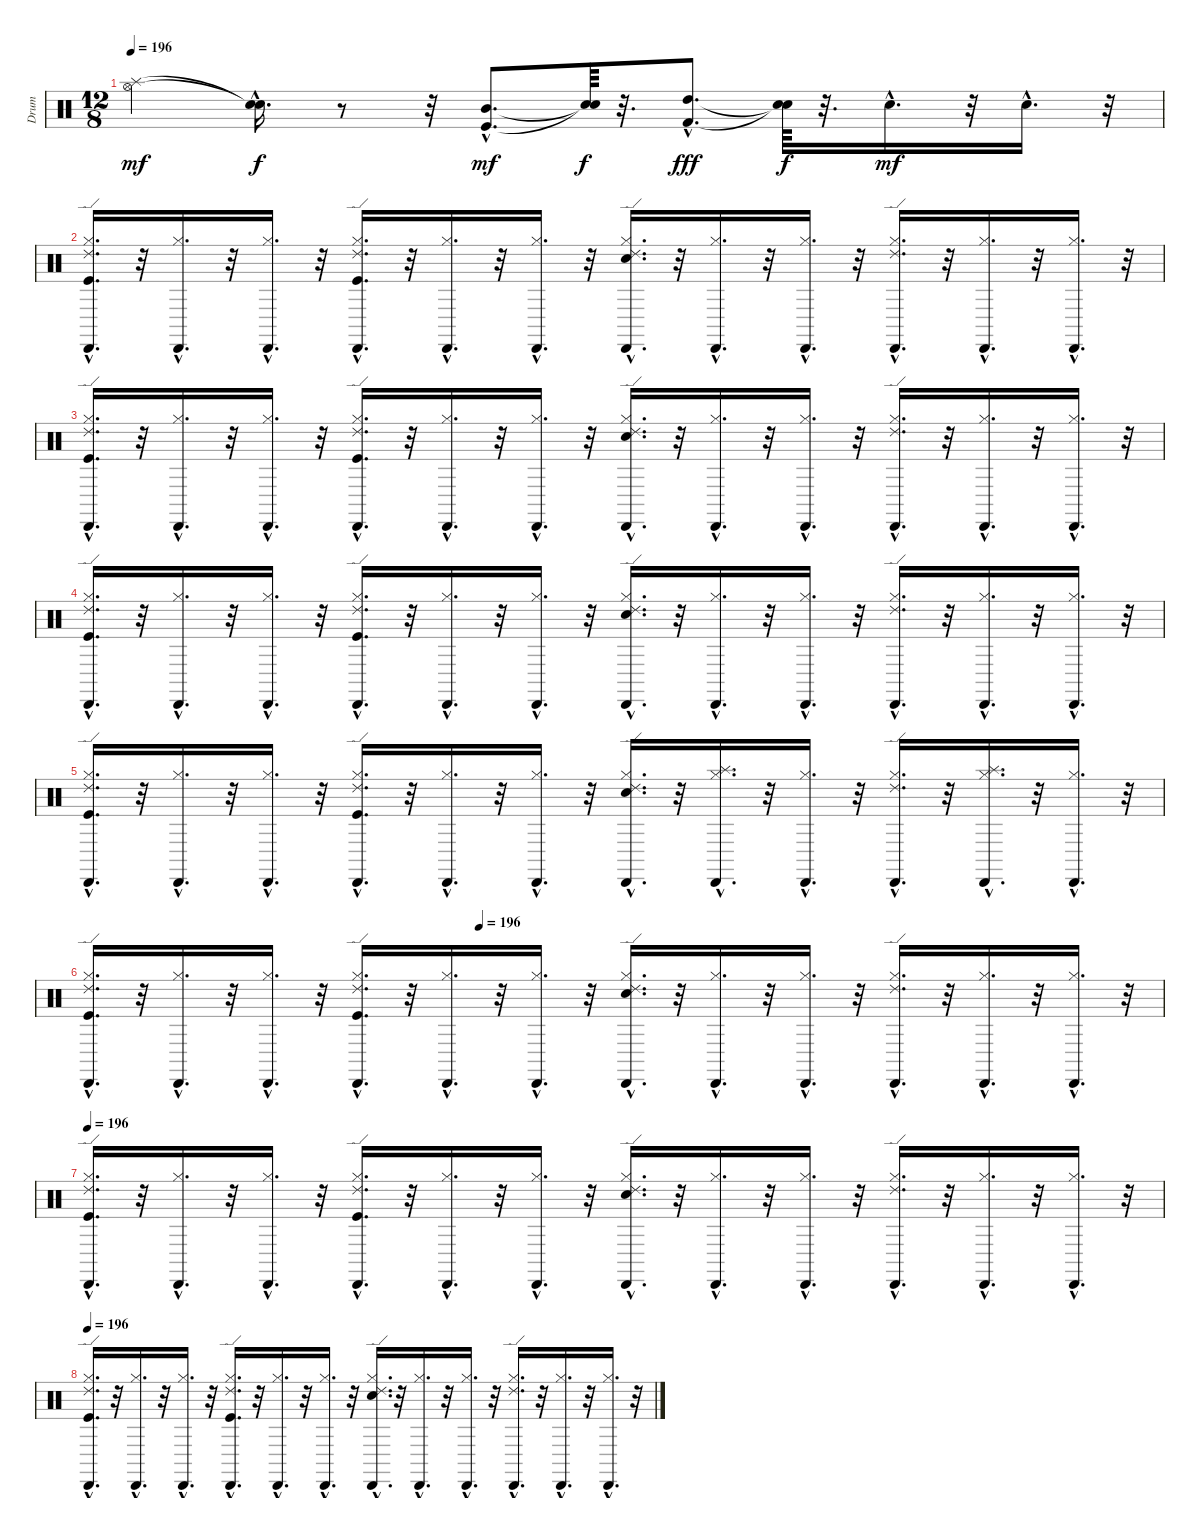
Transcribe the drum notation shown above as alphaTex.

\track ("Drum" "Drum") {instrument percussion}
\staff {score}
\articulation defaults
\ts (12 8)
\tempo 196
\clef neutral
\ks c
("Splash (hit)" "Hi-Hat (open)").2{dy mf} ("Snare (hit)"{hac t} "Snare (hit)"{hac t}).16{d dy f} r.8 r.32 ("Mid Tom (hit)"{hac} "Kick (hit)"{hac}).8{d dy mf} ("Snare (hit)"{t} "Snare (hit)"{t}).64{dy f} r.32{d} ("Kick (hit) 2"{hac} "High Tom (hit)"{hac}).8{d dy fff} ("Snare (hit)"{t} "Snare (hit)"{t}).64{dy f} r.32{d} "Snare (hit) 2"{hac}.16{d dy mf} r.32 "Snare (hit) 2"{hac}.16{d} r.32 |
("Ride (edge) 2"{hac} "Cabasa (hit)"{hac} "Kick (hit)"{hac} "Hi-Hat (closed)"{hac}).16{d} r.32 ("Cabasa (hit)"{hac} "Hi-Hat (closed)"{hac}).16{d} r.32 ("Cabasa (hit)"{hac} "Hi-Hat (closed)"{hac}).16{d} r.32 ("Ride (edge) 2"{hac} "Cabasa (hit)"{hac} "Kick (hit)"{hac} "Hi-Hat (closed)"{hac}).16{d} r.32 ("Cabasa (hit)"{hac} "Hi-Hat (closed)"{hac}).16{d} r.32 ("Cabasa (hit)"{hac} "Hi-Hat (closed)"{hac}).16{d} r.32 ("Ride (edge) 2"{hac} "Cabasa (hit)"{hac} "Snare (hit) 2"{hac} "Hi-Hat (closed)"{hac}).16{d} r.32 ("Cabasa (hit)"{hac} "Hi-Hat (closed)"{hac}).16{d} r.32 ("Cabasa (hit)"{hac} "Hi-Hat (closed)"{hac}).16{d} r.32 ("Ride (edge) 2"{hac} "Cabasa (hit)"{hac} "Hi-Hat (closed)"{hac}).16{d} r.32 ("Cabasa (hit)"{hac} "Hi-Hat (closed)"{hac}).16{d} r.32 ("Cabasa (hit)"{hac} "Hi-Hat (closed)"{hac}).16{d} r.32 |
("Kick (hit)"{hac} "Cabasa (hit)"{hac} "Ride (edge) 2"{hac} "Hi-Hat (closed)"{hac}).16{d} r.32 ("Hi-Hat (closed)"{hac} "Cabasa (hit)"{hac}).16{d} r.32 ("Hi-Hat (closed)"{hac} "Cabasa (hit)"{hac}).16{d} r.32 ("Kick (hit)"{hac} "Cabasa (hit)"{hac} "Hi-Hat (closed)"{hac} "Ride (edge) 2"{hac}).16{d} r.32 ("Hi-Hat (closed)"{hac} "Cabasa (hit)"{hac}).16{d} r.32 ("Cabasa (hit)"{hac} "Hi-Hat (closed)"{hac}).16{d} r.32 ("Cabasa (hit)"{hac} "Snare (hit) 2"{hac} "Ride (edge) 2"{hac} "Hi-Hat (closed)"{hac}).16{d} r.32 ("Hi-Hat (closed)"{hac} "Cabasa (hit)"{hac}).16{d} r.32 ("Hi-Hat (closed)"{hac} "Cabasa (hit)"{hac}).16{d} r.32 ("Hi-Hat (closed)"{hac} "Cabasa (hit)"{hac} "Ride (edge) 2"{hac}).16{d} r.32 ("Cabasa (hit)"{hac} "Hi-Hat (closed)"{hac}).16{d} r.32 ("Cabasa (hit)"{hac} "Hi-Hat (closed)"{hac}).16{d} r.32 |
("Cabasa (hit)"{hac} "Ride (edge) 2"{hac} "Hi-Hat (closed)"{hac} "Kick (hit)"{hac}).16{d} r.32 ("Hi-Hat (closed)"{hac} "Cabasa (hit)"{hac}).16{d} r.32 ("Hi-Hat (closed)"{hac} "Cabasa (hit)"{hac}).16{d} r.32 ("Cabasa (hit)"{hac} "Ride (edge) 2"{hac} "Hi-Hat (closed)"{hac} "Kick (hit)"{hac}).16{d} r.32 ("Cabasa (hit)"{hac} "Hi-Hat (closed)"{hac}).16{d} r.32 ("Hi-Hat (closed)"{hac} "Cabasa (hit)"{hac}).16{d} r.32 ("Ride (edge) 2"{hac} "Snare (hit) 2"{hac} "Hi-Hat (closed)"{hac} "Cabasa (hit)"{hac}).16{d} r.32 ("Cabasa (hit)"{hac} "Hi-Hat (closed)"{hac}).16{d} r.32 ("Hi-Hat (closed)"{hac} "Cabasa (hit)"{hac}).16{d} r.32 ("Cabasa (hit)"{hac} "Ride (edge) 2"{hac} "Hi-Hat (closed)"{hac}).16{d} r.32 ("Cabasa (hit)"{hac} "Hi-Hat (closed)"{hac}).16{d} r.32 ("Cabasa (hit)"{hac} "Hi-Hat (closed)"{hac}).16{d} r.32 |
("Ride (edge) 2"{hac} "Cabasa (hit)"{hac} "Kick (hit)"{hac} "Hi-Hat (closed)"{hac}).16{d} r.32 ("Cabasa (hit)"{hac} "Hi-Hat (closed)"{hac}).16{d} r.32 ("Cabasa (hit)"{hac} "Hi-Hat (closed)"{hac}).16{d} r.32 ("Ride (edge) 2"{hac} "Cabasa (hit)"{hac} "Kick (hit)"{hac} "Hi-Hat (closed)"{hac}).16{d} r.32 ("Cabasa (hit)"{hac} "Hi-Hat (closed)"{hac}).16{d} r.32 ("Cabasa (hit)"{hac} "Hi-Hat (closed)"{hac}).16{d} r.32 ("Ride (edge) 2"{hac} "Cabasa (hit)"{hac} "Snare (hit) 2"{hac} "Hi-Hat (closed)"{hac}).16{d} r.32 ("Splash (hit)"{hac} "Cabasa (hit)"{hac} "Hi-Hat (closed)"{hac}).16{d} r.32 ("Cabasa (hit)"{hac} "Hi-Hat (closed)"{hac}).16{d} r.32 ("Ride (edge) 2"{hac} "Cabasa (hit)"{hac} "Hi-Hat (closed)"{hac}).16{d} r.32 ("Splash (hit)"{hac} "Cabasa (hit)"{hac} "Hi-Hat (closed)"{hac}).16{d} r.32 ("Cabasa (hit)"{hac} "Hi-Hat (closed)"{hac}).16{d} r.32 |
\tempo (196 0.3645833333333333)
("Hi-Hat (closed)"{hac} "Kick (hit)"{hac} "Cabasa (hit)"{hac} "Ride (edge) 2"{hac}).16{d} r.32 ("Hi-Hat (closed)"{hac} "Cabasa (hit)"{hac}).16{d} r.32 ("Hi-Hat (closed)"{hac} "Cabasa (hit)"{hac}).16{d} r.32 ("Hi-Hat (closed)"{hac} "Kick (hit)"{hac} "Cabasa (hit)"{hac} "Ride (edge) 2"{hac}).16{d} r.32 ("Hi-Hat (closed)"{hac} "Cabasa (hit)"{hac}).16{d} r.32 ("Hi-Hat (closed)"{hac} "Cabasa (hit)"{hac}).16{d} r.32 ("Hi-Hat (closed)"{hac} "Snare (hit) 2"{hac} "Cabasa (hit)"{hac} "Ride (edge) 2"{hac}).16{d} r.32 ("Hi-Hat (closed)"{hac} "Cabasa (hit)"{hac}).16{d} r.32 ("Hi-Hat (closed)"{hac} "Cabasa (hit)"{hac}).16{d} r.32 ("Hi-Hat (closed)"{hac} "Cabasa (hit)"{hac} "Ride (edge) 2"{hac}).16{d} r.32 ("Hi-Hat (closed)"{hac} "Cabasa (hit)"{hac}).16{d} r.32 ("Hi-Hat (closed)"{hac} "Cabasa (hit)"{hac}).16{d} r.32 |
\tempo 196
("Ride (edge) 2"{hac} "Cabasa (hit)"{hac} "Kick (hit)"{hac} "Hi-Hat (closed)"{hac}).16{d} r.32 ("Cabasa (hit)"{hac} "Hi-Hat (closed)"{hac}).16{d} r.32 ("Cabasa (hit)"{hac} "Hi-Hat (closed)"{hac}).16{d} r.32 ("Ride (edge) 2"{hac} "Cabasa (hit)"{hac} "Kick (hit)"{hac} "Hi-Hat (closed)"{hac}).16{d} r.32 ("Cabasa (hit)"{hac} "Hi-Hat (closed)"{hac}).16{d} r.32 ("Cabasa (hit)"{hac} "Hi-Hat (closed)"{hac}).16{d} r.32 ("Ride (edge) 2"{hac} "Cabasa (hit)"{hac} "Snare (hit) 2"{hac} "Hi-Hat (closed)"{hac}).16{d} r.32 ("Cabasa (hit)"{hac} "Hi-Hat (closed)"{hac}).16{d} r.32 ("Cabasa (hit)"{hac} "Hi-Hat (closed)"{hac}).16{d} r.32 ("Ride (edge) 2"{hac} "Cabasa (hit)"{hac} "Hi-Hat (closed)"{hac}).16{d} r.32 ("Cabasa (hit)"{hac} "Hi-Hat (closed)"{hac}).16{d} r.32 ("Cabasa (hit)"{hac} "Hi-Hat (closed)"{hac}).16{d} r.32 |
\tempo 196
("Hi-Hat (closed)"{hac} "Kick (hit)"{hac} "Cabasa (hit)"{hac} "Ride (edge) 2"{hac}).16{d} r.32 ("Hi-Hat (closed)"{hac} "Cabasa (hit)"{hac}).16{d} r.32 ("Hi-Hat (closed)"{hac} "Cabasa (hit)"{hac}).16{d} r.32 ("Hi-Hat (closed)"{hac} "Kick (hit)"{hac} "Cabasa (hit)"{hac} "Ride (edge) 2"{hac}).16{d} r.32 ("Hi-Hat (closed)"{hac} "Cabasa (hit)"{hac}).16{d} r.32 ("Hi-Hat (closed)"{hac} "Cabasa (hit)"{hac}).16{d} r.32 ("Hi-Hat (closed)"{hac} "Snare (hit) 2"{hac} "Cabasa (hit)"{hac} "Ride (edge) 2"{hac}).16{d} r.32 ("Hi-Hat (closed)"{hac} "Cabasa (hit)"{hac}).16{d} r.32 ("Hi-Hat (closed)"{hac} "Cabasa (hit)"{hac}).16{d} r.32 ("Hi-Hat (closed)"{hac} "Cabasa (hit)"{hac} "Ride (edge) 2"{hac}).16{d} r.32 ("Hi-Hat (closed)"{hac} "Cabasa (hit)"{hac}).16{d} r.32 ("Hi-Hat (closed)"{hac} "Cabasa (hit)"{hac}).16{d} r.32
